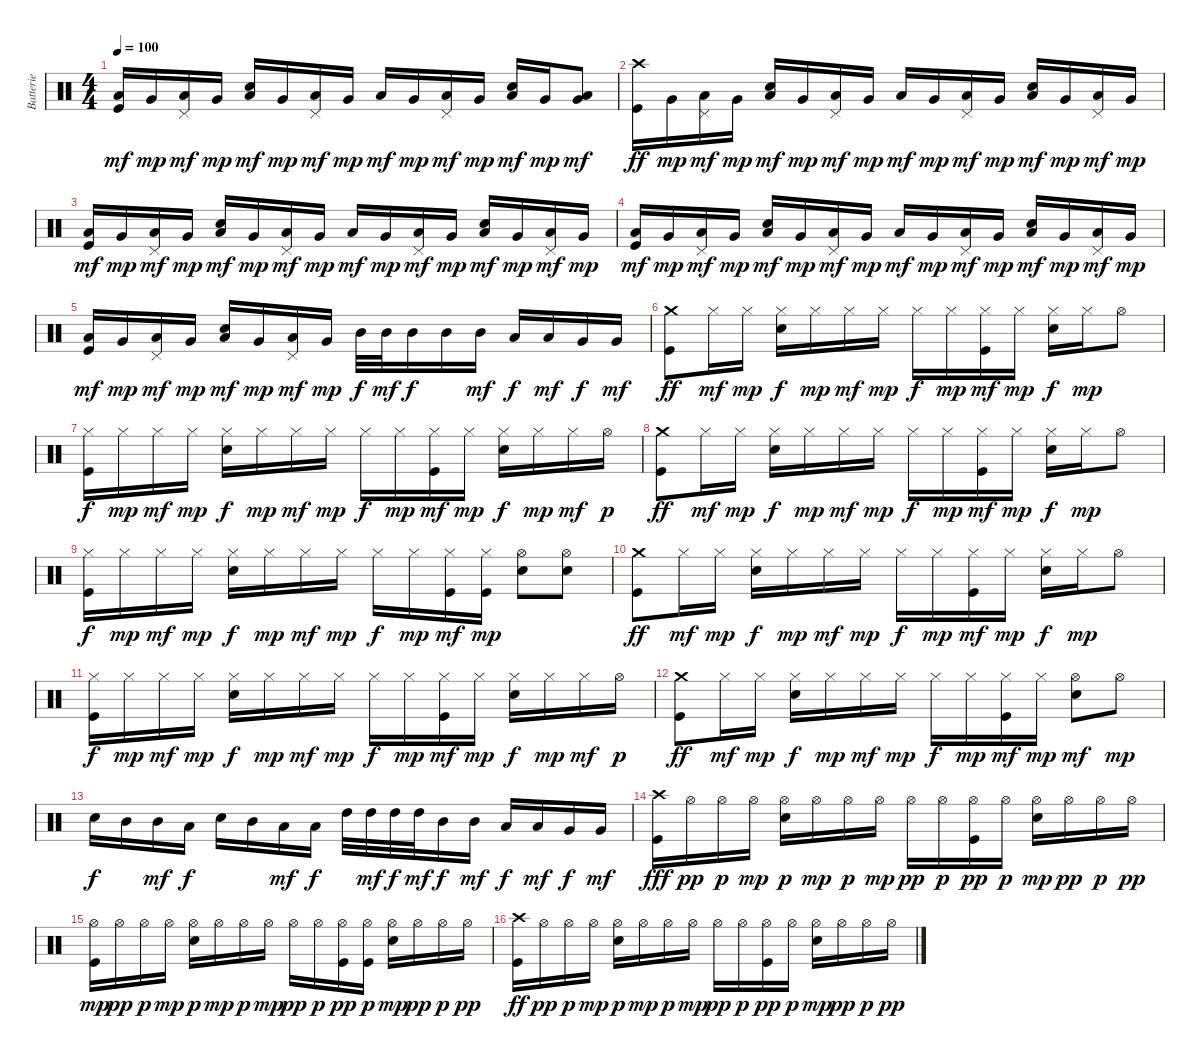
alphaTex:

\track ("Batterie" "Batterie") {instrument percussion}
\staff {score}
\articulation defaults
\ts (4 4)
\tempo 100
\clef neutral
\ks c
("Low Tom (hit)" "Kick (hit)").16{dy mf} "Very Low Tom (hit)".16{dy mp} ("Pedal Hi-Hat (hit)" "Low Tom (hit)").16{dy mf} "Very Low Tom (hit)".16{dy mp} ("Snare (hit) 2" "Low Floor Tom (hit)").16{dy mf} "Very Low Tom (hit)".16{dy mp} ("Pedal Hi-Hat (hit)" "Low Tom (hit)").16{dy mf} "Very Low Tom (hit)".16{dy mp} "Low Floor Tom (hit)".16{dy mf} "Very Low Tom (hit)".16{dy mp} ("Pedal Hi-Hat (hit)" "Low Tom (hit)").16{dy mf} "Very Low Tom (hit)".16{dy mp} ("Snare (hit) 2" "Low Floor Tom (hit)").16{dy mf} "Very Low Tom (hit)".16{dy mp} ("Low Tom (hit)" "Very Low Tom (hit)").8{bd 60 dy mf} |
("Crash high (hit)" "Kick (hit)").16{dy ff} "Very Low Tom (hit)".16{dy mp} ("Pedal Hi-Hat (hit)" "Low Tom (hit)").16{dy mf} "Very Low Tom (hit)".16{dy mp} ("Snare (hit) 2" "Low Floor Tom (hit)").16{dy mf} "Very Low Tom (hit)".16{dy mp} ("Pedal Hi-Hat (hit)" "Low Tom (hit)").16{dy mf} "Very Low Tom (hit)".16{dy mp} "Low Floor Tom (hit)".16{dy mf} "Very Low Tom (hit)".16{dy mp} ("Pedal Hi-Hat (hit)" "Low Tom (hit)").16{dy mf} "Very Low Tom (hit)".16{dy mp} ("Snare (hit) 2" "Low Floor Tom (hit)").16{dy mf} "Very Low Tom (hit)".16{dy mp} ("Pedal Hi-Hat (hit)" "Low Tom (hit)").16{dy mf} "Very Low Tom (hit)".16{dy mp} |
("Low Tom (hit)" "Kick (hit)").16{dy mf} "Very Low Tom (hit)".16{dy mp} ("Pedal Hi-Hat (hit)" "Low Tom (hit)").16{dy mf} "Very Low Tom (hit)".16{dy mp} ("Snare (hit) 2" "Low Floor Tom (hit)").16{dy mf} "Very Low Tom (hit)".16{dy mp} ("Pedal Hi-Hat (hit)" "Low Tom (hit)").16{dy mf} "Very Low Tom (hit)".16{dy mp} "Low Floor Tom (hit)".16{dy mf} "Very Low Tom (hit)".16{dy mp} ("Pedal Hi-Hat (hit)" "Low Tom (hit)").16{dy mf} "Very Low Tom (hit)".16{dy mp} ("Snare (hit) 2" "Low Floor Tom (hit)").16{dy mf} "Very Low Tom (hit)".16{dy mp} ("Pedal Hi-Hat (hit)" "Low Tom (hit)").16{dy mf} "Very Low Tom (hit)".16{dy mp} |
("Low Tom (hit)" "Kick (hit)").16{dy mf} "Very Low Tom (hit)".16{dy mp} ("Pedal Hi-Hat (hit)" "Low Tom (hit)").16{dy mf} "Very Low Tom (hit)".16{dy mp} ("Snare (hit) 2" "Low Floor Tom (hit)").16{dy mf} "Very Low Tom (hit)".16{dy mp} ("Pedal Hi-Hat (hit)" "Low Tom (hit)").16{dy mf} "Very Low Tom (hit)".16{dy mp} "Low Floor Tom (hit)".16{dy mf} "Very Low Tom (hit)".16{dy mp} ("Pedal Hi-Hat (hit)" "Low Tom (hit)").16{dy mf} "Very Low Tom (hit)".16{dy mp} ("Snare (hit) 2" "Low Floor Tom (hit)").16{dy mf} "Very Low Tom (hit)".16{dy mp} ("Pedal Hi-Hat (hit)" "Low Tom (hit)").16{dy mf} "Very Low Tom (hit)".16{dy mp} |
("Low Tom (hit)" "Kick (hit)").16{dy mf} "Very Low Tom (hit)".16{dy mp} ("Pedal Hi-Hat (hit)" "Low Tom (hit)").16{dy mf} "Very Low Tom (hit)".16{dy mp} ("Snare (hit) 2" "Low Floor Tom (hit)").16{dy mf} "Very Low Tom (hit)".16{dy mp} ("Pedal Hi-Hat (hit)" "Low Tom (hit)").16{dy mf} "Very Low Tom (hit)".16{dy mp} "Mid Tom (hit)".32{dy f} "Mid Tom (hit)".32{dy mf} "Mid Tom (hit)".16{dy f} "Mid Tom (hit)".16 "Mid Tom (hit)".16{dy mf} "Low Tom (hit)".16{dy f} "Low Tom (hit)".16{dy mf} "Very Low Tom (hit)".16{dy f} "Very Low Tom (hit)".16{dy mf} |
("Crash medium (hit)" "Kick (hit)").8{dy ff} "Hi-Hat (closed)".16{dy mf} "Hi-Hat (closed)".16{dy mp} ("Hi-Hat (closed)" "Snare (hit) 2").16{dy f} "Hi-Hat (closed)".16{dy mp} "Hi-Hat (closed)".16{dy mf} "Hi-Hat (closed)".16{dy mp} "Hi-Hat (closed)".16{dy f} "Hi-Hat (closed)".16{dy mp} ("Hi-Hat (closed)" "Kick (hit)").16{dy mf} "Hi-Hat (closed)".16{dy mp} ("Hi-Hat (closed)" "Snare (hit) 2").16{dy f} "Hi-Hat (closed)".16{dy mp} "Hi-Hat (open)".8 |
("Hi-Hat (closed)" "Kick (hit)").16{dy f} "Hi-Hat (closed)".16{dy mp} "Hi-Hat (closed)".16{dy mf} "Hi-Hat (closed)".16{dy mp} ("Hi-Hat (closed)" "Snare (hit) 2").16{dy f} "Hi-Hat (closed)".16{dy mp} "Hi-Hat (closed)".16{dy mf} "Hi-Hat (closed)".16{dy mp} "Hi-Hat (closed)".16{dy f} "Hi-Hat (closed)".16{dy mp} ("Hi-Hat (closed)" "Kick (hit)").16{dy mf} "Hi-Hat (closed)".16{dy mp} ("Hi-Hat (closed)" "Snare (hit) 2").16{dy f} "Hi-Hat (closed)".16{dy mp} "Hi-Hat (closed)".16{dy mf} "Hi-Hat (open)".16{dy p} |
("Crash medium (hit)" "Kick (hit)").8{dy ff} "Hi-Hat (closed)".16{dy mf} "Hi-Hat (closed)".16{dy mp} ("Hi-Hat (closed)" "Snare (hit) 2").16{dy f} "Hi-Hat (closed)".16{dy mp} "Hi-Hat (closed)".16{dy mf} "Hi-Hat (closed)".16{dy mp} "Hi-Hat (closed)".16{dy f} "Hi-Hat (closed)".16{dy mp} ("Hi-Hat (closed)" "Kick (hit)").16{dy mf} "Hi-Hat (closed)".16{dy mp} ("Hi-Hat (closed)" "Snare (hit) 2").16{dy f} "Hi-Hat (closed)".16{dy mp} "Hi-Hat (open)".8 |
("Hi-Hat (closed)" "Kick (hit)").16{dy f} "Hi-Hat (closed)".16{dy mp} "Hi-Hat (closed)".16{dy mf} "Hi-Hat (closed)".16{dy mp} ("Hi-Hat (closed)" "Snare (hit) 2").16{dy f} "Hi-Hat (closed)".16{dy mp} "Hi-Hat (closed)".16{dy mf} "Hi-Hat (closed)".16{dy mp} "Hi-Hat (closed)".16{dy f} "Hi-Hat (closed)".16{dy mp} ("Hi-Hat (closed)" "Kick (hit)").16{dy mf} ("Hi-Hat (closed)" "Kick (hit)").16{dy mp} ("Hi-Hat (open)" "Snare (hit) 2").8 ("Hi-Hat (open)" "Snare (hit) 2").8 |
("Crash medium (hit)" "Kick (hit)").8{dy ff} "Hi-Hat (closed)".16{dy mf} "Hi-Hat (closed)".16{dy mp} ("Hi-Hat (closed)" "Snare (hit) 2").16{dy f} "Hi-Hat (closed)".16{dy mp} "Hi-Hat (closed)".16{dy mf} "Hi-Hat (closed)".16{dy mp} "Hi-Hat (closed)".16{dy f} "Hi-Hat (closed)".16{dy mp} ("Hi-Hat (closed)" "Kick (hit)").16{dy mf} "Hi-Hat (closed)".16{dy mp} ("Hi-Hat (closed)" "Snare (hit) 2").16{dy f} "Hi-Hat (closed)".16{dy mp} "Hi-Hat (open)".8 |
("Hi-Hat (closed)" "Kick (hit)").16{dy f} "Hi-Hat (closed)".16{dy mp} "Hi-Hat (closed)".16{dy mf} "Hi-Hat (closed)".16{dy mp} ("Hi-Hat (closed)" "Snare (hit) 2").16{dy f} "Hi-Hat (closed)".16{dy mp} "Hi-Hat (closed)".16{dy mf} "Hi-Hat (closed)".16{dy mp} "Hi-Hat (closed)".16{dy f} "Hi-Hat (closed)".16{dy mp} ("Hi-Hat (closed)" "Kick (hit)").16{dy mf} "Hi-Hat (closed)".16{dy mp} ("Hi-Hat (closed)" "Snare (hit) 2").16{dy f} "Hi-Hat (closed)".16{dy mp} "Hi-Hat (closed)".16{dy mf} "Hi-Hat (open)".16{dy p} |
("Crash medium (hit)" "Kick (hit)").8{dy ff} "Hi-Hat (closed)".16{dy mf} "Hi-Hat (closed)".16{dy mp} ("Hi-Hat (closed)" "Snare (hit) 2").16{dy f} "Hi-Hat (closed)".16{dy mp} "Hi-Hat (closed)".16{dy mf} "Hi-Hat (closed)".16{dy mp} "Hi-Hat (closed)".16{dy f} "Hi-Hat (closed)".16{dy mp} ("Hi-Hat (closed)" "Kick (hit)").16{dy mf} "Hi-Hat (closed)".16{dy mp} ("Hi-Hat (open)" "Snare (hit) 2").8{dy mf} "Hi-Hat (open)".8{dy mp} |
"Snare (hit) 2".16{dy f} "Mid Tom (hit)".16 "Mid Tom (hit)".16{dy mf} "Low Tom (hit)".16{dy f} "Snare (hit) 2".16 "Mid Tom (hit)".16 "Low Tom (hit)".16{dy mf} "Low Tom (hit)".16{dy f} "High Tom (hit)".32 "High Tom (hit)".32{dy mf} "High Tom (hit)".32{dy f} "High Tom (hit)".32{dy mf} "Mid Tom (hit)".16{dy f} "Mid Tom (hit)".16{dy mf} "Low Tom (hit)".16{dy f} "Low Tom (hit)".16{dy mf} "Very Low Tom (hit)".16{dy f} "Very Low Tom (hit)".16{dy mf} |
("Crash high (hit)" "Kick (hit)").16{dy fff} "Hi-Hat (open)".16{dy pp} "Hi-Hat (open)".16{dy p} "Hi-Hat (open)".16{dy mp} ("Hi-Hat (open)" "Snare (hit) 2").16{dy p} "Hi-Hat (open)".16{dy mp} "Hi-Hat (open)".16{dy p} "Hi-Hat (open)".16{dy mp} "Hi-Hat (open)".16{dy pp} "Hi-Hat (open)".16{dy p} ("Hi-Hat (open)" "Kick (hit)").16{dy pp} "Hi-Hat (open)".16{dy p} ("Hi-Hat (open)" "Snare (hit) 2").16{dy mp} "Hi-Hat (open)".16{dy pp} "Hi-Hat (open)".16{dy p} "Hi-Hat (open)".16{dy pp} |
("Hi-Hat (open)" "Kick (hit)").16{dy mp} "Hi-Hat (open)".16{dy pp} "Hi-Hat (open)".16{dy p} "Hi-Hat (open)".16{dy mp} ("Hi-Hat (open)" "Snare (hit) 2").16{dy p} "Hi-Hat (open)".16{dy mp} "Hi-Hat (open)".16{dy p} "Hi-Hat (open)".16{dy mp} "Hi-Hat (open)".16{dy pp} "Hi-Hat (open)".16{dy p} ("Hi-Hat (open)" "Kick (hit)").16{dy pp} ("Hi-Hat (open)" "Kick (hit)").16{dy p} ("Hi-Hat (open)" "Snare (hit) 2").16{dy mp} "Hi-Hat (open)".16{dy pp} "Hi-Hat (open)".16{dy p} "Hi-Hat (open)".16{dy pp} |
("Crash high (hit)" "Kick (hit)").16{dy ff} "Hi-Hat (open)".16{dy pp} "Hi-Hat (open)".16{dy p} "Hi-Hat (open)".16{dy mp} ("Hi-Hat (open)" "Snare (hit) 2").16{dy p} "Hi-Hat (open)".16{dy mp} "Hi-Hat (open)".16{dy p} "Hi-Hat (open)".16{dy mp} "Hi-Hat (open)".16{dy pp} "Hi-Hat (open)".16{dy p} ("Hi-Hat (open)" "Kick (hit)").16{dy pp} "Hi-Hat (open)".16{dy p} ("Hi-Hat (open)" "Snare (hit) 2").16{dy mp} "Hi-Hat (open)".16{dy pp} "Hi-Hat (open)".16{dy p} "Hi-Hat (open)".16{dy pp}
